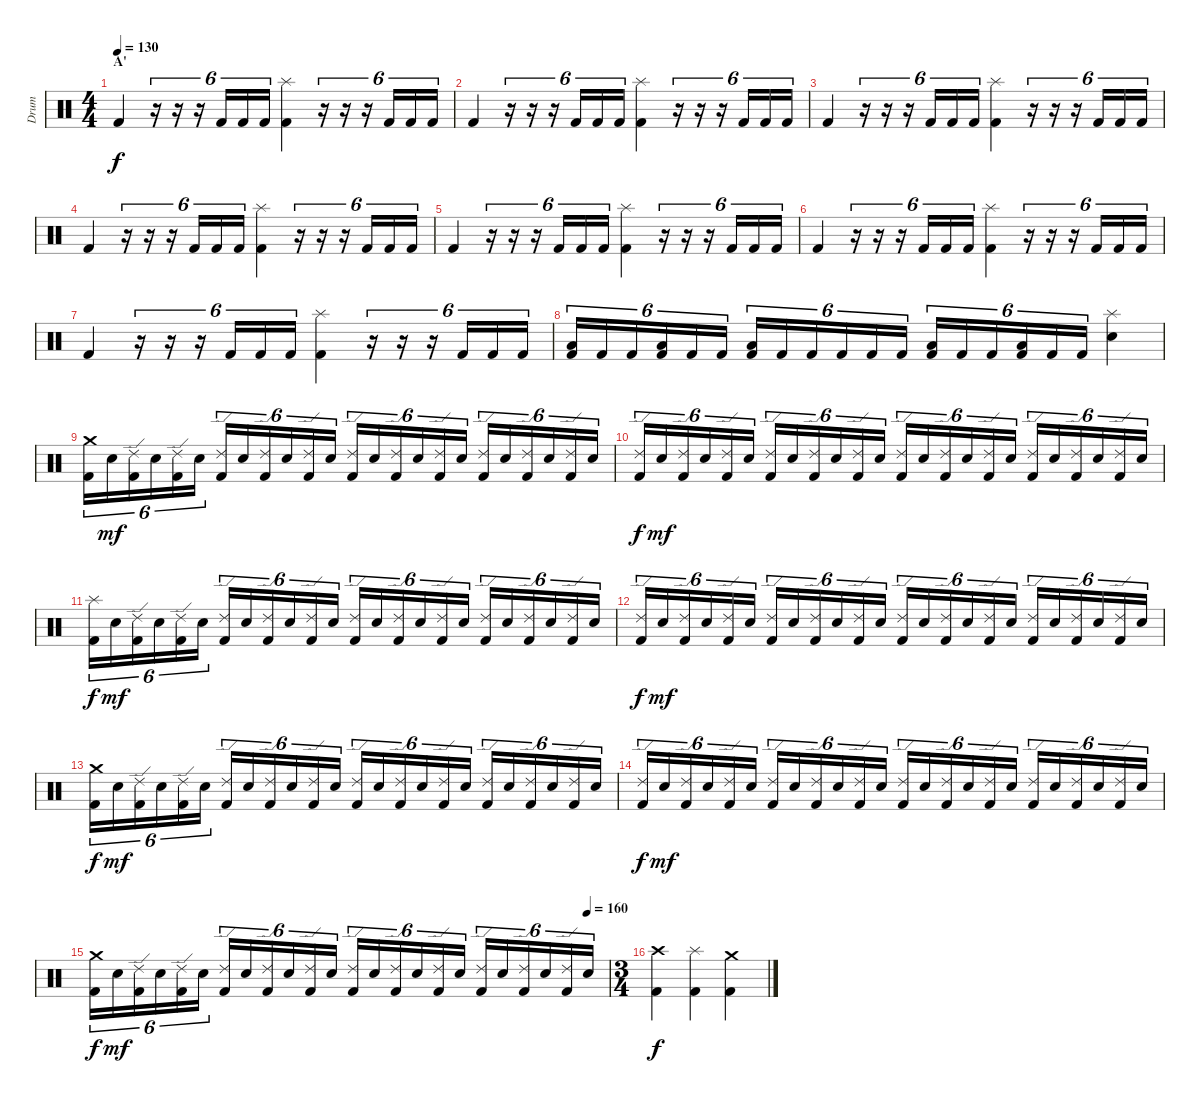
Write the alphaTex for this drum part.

\track ("Drum" "Drum") {instrument percussion}
\staff {score}
\articulation defaults
\ts (4 4)
\section ("" "A'")
\tempo 130
\clef neutral
\ks c "Kick (hit) 2".4{dy f}
r.16{tu (6 4)} r.16{tu (6 4)} r.16{tu (6 4)} "Kick (hit) 2".16{tu (6 4)} "Kick (hit) 2".16{tu (6 4)} "Kick (hit) 2".16{tu (6 4)} ("Splash (hit)" "Kick (hit) 2").4 r.16{tu (6 4)} r.16{tu (6 4)} r.16{tu (6 4)} "Kick (hit) 2".16{tu (6 4)} "Kick (hit) 2".16{tu (6 4)} "Kick (hit) 2".16{tu (6 4)} |
"Kick (hit) 2".4 r.16{tu (6 4)} r.16{tu (6 4)} r.16{tu (6 4)} "Kick (hit) 2".16{tu (6 4)} "Kick (hit) 2".16{tu (6 4)} "Kick (hit) 2".16{tu (6 4)} ("Splash (hit)" "Kick (hit) 2").4 r.16{tu (6 4)} r.16{tu (6 4)} r.16{tu (6 4)} "Kick (hit) 2".16{tu (6 4)} "Kick (hit) 2".16{tu (6 4)} "Kick (hit) 2".16{tu (6 4)} |
"Kick (hit) 2".4 r.16{tu (6 4)} r.16{tu (6 4)} r.16{tu (6 4)} "Kick (hit) 2".16{tu (6 4)} "Kick (hit) 2".16{tu (6 4)} "Kick (hit) 2".16{tu (6 4)} ("Splash (hit)" "Kick (hit) 2").4 r.16{tu (6 4)} r.16{tu (6 4)} r.16{tu (6 4)} "Kick (hit) 2".16{tu (6 4)} "Kick (hit) 2".16{tu (6 4)} "Kick (hit) 2".16{tu (6 4)} |
"Kick (hit) 2".4 r.16{tu (6 4)} r.16{tu (6 4)} r.16{tu (6 4)} "Kick (hit) 2".16{tu (6 4)} "Kick (hit) 2".16{tu (6 4)} "Kick (hit) 2".16{tu (6 4)} ("Splash (hit)" "Kick (hit) 2").4 r.16{tu (6 4)} r.16{tu (6 4)} r.16{tu (6 4)} "Kick (hit) 2".16{tu (6 4)} "Kick (hit) 2".16{tu (6 4)} "Kick (hit) 2".16{tu (6 4)} |
"Kick (hit) 2".4 r.16{tu (6 4)} r.16{tu (6 4)} r.16{tu (6 4)} "Kick (hit) 2".16{tu (6 4)} "Kick (hit) 2".16{tu (6 4)} "Kick (hit) 2".16{tu (6 4)} ("Splash (hit)" "Kick (hit) 2").4 r.16{tu (6 4)} r.16{tu (6 4)} r.16{tu (6 4)} "Kick (hit) 2".16{tu (6 4)} "Kick (hit) 2".16{tu (6 4)} "Kick (hit) 2".16{tu (6 4)} |
"Kick (hit) 2".4 r.16{tu (6 4)} r.16{tu (6 4)} r.16{tu (6 4)} "Kick (hit) 2".16{tu (6 4)} "Kick (hit) 2".16{tu (6 4)} "Kick (hit) 2".16{tu (6 4)} ("Splash (hit)" "Kick (hit) 2").4 r.16{tu (6 4)} r.16{tu (6 4)} r.16{tu (6 4)} "Kick (hit) 2".16{tu (6 4)} "Kick (hit) 2".16{tu (6 4)} "Kick (hit) 2".16{tu (6 4)} |
"Kick (hit) 2".4 r.16{tu (6 4)} r.16{tu (6 4)} r.16{tu (6 4)} "Kick (hit) 2".16{tu (6 4)} "Kick (hit) 2".16{tu (6 4)} "Kick (hit) 2".16{tu (6 4)} ("Splash (hit)" "Kick (hit) 2").4 r.16{tu (6 4)} r.16{tu (6 4)} r.16{tu (6 4)} "Kick (hit) 2".16{tu (6 4)} "Kick (hit) 2".16{tu (6 4)} "Kick (hit) 2".16{tu (6 4)} |
("Low Tom (hit)" "Kick (hit) 2").16{tu (6 4)} "Kick (hit) 2".16{tu (6 4)} "Kick (hit) 2".16{tu (6 4)} ("Low Tom (hit)" "Kick (hit) 2").16{tu (6 4)} "Kick (hit) 2".16{tu (6 4)} "Kick (hit) 2".16{tu (6 4)} ("Low Tom (hit)" "Kick (hit) 2").16{tu (6 4)} "Kick (hit) 2".16{tu (6 4)} "Kick (hit) 2".16{tu (6 4)} "Kick (hit) 2".16{tu (6 4)} "Kick (hit) 2".16{tu (6 4)} "Kick (hit) 2".16{tu (6 4)} ("Low Tom (hit)" "Kick (hit) 2").16{tu (6 4)} "Kick (hit) 2".16{tu (6 4)} "Kick (hit) 2".16{tu (6 4)} ("Low Tom (hit)" "Kick (hit) 2").16{tu (6 4)} "Kick (hit) 2".16{tu (6 4)} "Kick (hit) 2".16{tu (6 4)} ("Splash (hit)" "Electric Snare (hit)").4 |
("Crash medium (hit)" "Kick (hit) 2").16{tu (6 4)} "Electric Snare (hit)".16{tu (6 4) dy mf} ("Ride (edge) 2" "Kick (hit) 2").16{tu (6 4)} "Electric Snare (hit)".16{tu (6 4)} ("Ride (edge) 2" "Kick (hit) 2").16{tu (6 4)} "Electric Snare (hit)".16{tu (6 4)} ("Ride (edge) 2" "Kick (hit) 2").16{tu (6 4)} "Electric Snare (hit)".16{tu (6 4)} ("Ride (edge) 2" "Kick (hit) 2").16{tu (6 4)} "Electric Snare (hit)".16{tu (6 4)} ("Ride (edge) 2" "Kick (hit) 2").16{tu (6 4)} "Electric Snare (hit)".16{tu (6 4)} ("Ride (edge) 2" "Kick (hit) 2").16{tu (6 4)} "Electric Snare (hit)".16{tu (6 4)} ("Ride (edge) 2" "Kick (hit) 2").16{tu (6 4)} "Electric Snare (hit)".16{tu (6 4)} ("Ride (edge) 2" "Kick (hit) 2").16{tu (6 4)} "Electric Snare (hit)".16{tu (6 4)} ("Ride (edge) 2" "Kick (hit) 2").16{tu (6 4)} "Electric Snare (hit)".16{tu (6 4)} ("Ride (edge) 2" "Kick (hit) 2").16{tu (6 4)} "Electric Snare (hit)".16{tu (6 4)} ("Ride (edge) 2" "Kick (hit) 2").16{tu (6 4)} "Electric Snare (hit)".16{tu (6 4)} |
("Ride (edge) 2" "Kick (hit) 2").16{tu (6 4) dy f} "Electric Snare (hit)".16{tu (6 4) dy mf} ("Ride (edge) 2" "Kick (hit) 2").16{tu (6 4)} "Electric Snare (hit)".16{tu (6 4)} ("Ride (edge) 2" "Kick (hit) 2").16{tu (6 4)} "Electric Snare (hit)".16{tu (6 4)} ("Ride (edge) 2" "Kick (hit) 2").16{tu (6 4)} "Electric Snare (hit)".16{tu (6 4)} ("Ride (edge) 2" "Kick (hit) 2").16{tu (6 4)} "Electric Snare (hit)".16{tu (6 4)} ("Ride (edge) 2" "Kick (hit) 2").16{tu (6 4)} "Electric Snare (hit)".16{tu (6 4)} ("Ride (edge) 2" "Kick (hit) 2").16{tu (6 4)} "Electric Snare (hit)".16{tu (6 4)} ("Ride (edge) 2" "Kick (hit) 2").16{tu (6 4)} "Electric Snare (hit)".16{tu (6 4)} ("Ride (edge) 2" "Kick (hit) 2").16{tu (6 4)} "Electric Snare (hit)".16{tu (6 4)} ("Ride (edge) 2" "Kick (hit) 2").16{tu (6 4)} "Electric Snare (hit)".16{tu (6 4)} ("Ride (edge) 2" "Kick (hit) 2").16{tu (6 4)} "Electric Snare (hit)".16{tu (6 4)} ("Ride (edge) 2" "Kick (hit) 2").16{tu (6 4)} "Electric Snare (hit)".16{tu (6 4)} |
("Splash (hit)" "Kick (hit) 2").16{tu (6 4) dy f} "Electric Snare (hit)".16{tu (6 4) dy mf} ("Ride (edge) 2" "Kick (hit) 2").16{tu (6 4)} "Electric Snare (hit)".16{tu (6 4)} ("Ride (edge) 2" "Kick (hit) 2").16{tu (6 4)} "Electric Snare (hit)".16{tu (6 4)} ("Ride (edge) 2" "Kick (hit) 2").16{tu (6 4)} "Electric Snare (hit)".16{tu (6 4)} ("Ride (edge) 2" "Kick (hit) 2").16{tu (6 4)} "Electric Snare (hit)".16{tu (6 4)} ("Ride (edge) 2" "Kick (hit) 2").16{tu (6 4)} "Electric Snare (hit)".16{tu (6 4)} ("Ride (edge) 2" "Kick (hit) 2").16{tu (6 4)} "Electric Snare (hit)".16{tu (6 4)} ("Ride (edge) 2" "Kick (hit) 2").16{tu (6 4)} "Electric Snare (hit)".16{tu (6 4)} ("Ride (edge) 2" "Kick (hit) 2").16{tu (6 4)} "Electric Snare (hit)".16{tu (6 4)} ("Ride (edge) 2" "Kick (hit) 2").16{tu (6 4)} "Electric Snare (hit)".16{tu (6 4)} ("Ride (edge) 2" "Kick (hit) 2").16{tu (6 4)} "Electric Snare (hit)".16{tu (6 4)} ("Ride (edge) 2" "Kick (hit) 2").16{tu (6 4)} "Electric Snare (hit)".16{tu (6 4)} |
("Ride (edge) 2" "Kick (hit) 2").16{tu (6 4) dy f} "Electric Snare (hit)".16{tu (6 4) dy mf} ("Ride (edge) 2" "Kick (hit) 2").16{tu (6 4)} "Electric Snare (hit)".16{tu (6 4)} ("Ride (edge) 2" "Kick (hit) 2").16{tu (6 4)} "Electric Snare (hit)".16{tu (6 4)} ("Ride (edge) 2" "Kick (hit) 2").16{tu (6 4)} "Electric Snare (hit)".16{tu (6 4)} ("Ride (edge) 2" "Kick (hit) 2").16{tu (6 4)} "Electric Snare (hit)".16{tu (6 4)} ("Ride (edge) 2" "Kick (hit) 2").16{tu (6 4)} "Electric Snare (hit)".16{tu (6 4)} ("Ride (edge) 2" "Kick (hit) 2").16{tu (6 4)} "Electric Snare (hit)".16{tu (6 4)} ("Ride (edge) 2" "Kick (hit) 2").16{tu (6 4)} "Electric Snare (hit)".16{tu (6 4)} ("Ride (edge) 2" "Kick (hit) 2").16{tu (6 4)} "Electric Snare (hit)".16{tu (6 4)} ("Ride (edge) 2" "Kick (hit) 2").16{tu (6 4)} "Electric Snare (hit)".16{tu (6 4)} ("Ride (edge) 2" "Kick (hit) 2").16{tu (6 4)} "Electric Snare (hit)".16{tu (6 4)} ("Ride (edge) 2" "Kick (hit) 2").16{tu (6 4)} "Electric Snare (hit)".16{tu (6 4)} |
("Crash medium (hit)" "Kick (hit) 2").16{tu (6 4) dy f} "Electric Snare (hit)".16{tu (6 4) dy mf} ("Ride (edge) 2" "Kick (hit) 2").16{tu (6 4)} "Electric Snare (hit)".16{tu (6 4)} ("Ride (edge) 2" "Kick (hit) 2").16{tu (6 4)} "Electric Snare (hit)".16{tu (6 4)} ("Ride (edge) 2" "Kick (hit) 2").16{tu (6 4)} "Electric Snare (hit)".16{tu (6 4)} ("Ride (edge) 2" "Kick (hit) 2").16{tu (6 4)} "Electric Snare (hit)".16{tu (6 4)} ("Ride (edge) 2" "Kick (hit) 2").16{tu (6 4)} "Electric Snare (hit)".16{tu (6 4)} ("Ride (edge) 2" "Kick (hit) 2").16{tu (6 4)} "Electric Snare (hit)".16{tu (6 4)} ("Ride (edge) 2" "Kick (hit) 2").16{tu (6 4)} "Electric Snare (hit)".16{tu (6 4)} ("Ride (edge) 2" "Kick (hit) 2").16{tu (6 4)} "Electric Snare (hit)".16{tu (6 4)} ("Ride (edge) 2" "Kick (hit) 2").16{tu (6 4)} "Electric Snare (hit)".16{tu (6 4)} ("Ride (edge) 2" "Kick (hit) 2").16{tu (6 4)} "Electric Snare (hit)".16{tu (6 4)} ("Ride (edge) 2" "Kick (hit) 2").16{tu (6 4)} "Electric Snare (hit)".16{tu (6 4)} |
("Ride (edge) 2" "Kick (hit) 2").16{tu (6 4) dy f} "Electric Snare (hit)".16{tu (6 4) dy mf} ("Ride (edge) 2" "Kick (hit) 2").16{tu (6 4)} "Electric Snare (hit)".16{tu (6 4)} ("Ride (edge) 2" "Kick (hit) 2").16{tu (6 4)} "Electric Snare (hit)".16{tu (6 4)} ("Ride (edge) 2" "Kick (hit) 2").16{tu (6 4)} "Electric Snare (hit)".16{tu (6 4)} ("Ride (edge) 2" "Kick (hit) 2").16{tu (6 4)} "Electric Snare (hit)".16{tu (6 4)} ("Ride (edge) 2" "Kick (hit) 2").16{tu (6 4)} "Electric Snare (hit)".16{tu (6 4)} ("Ride (edge) 2" "Kick (hit) 2").16{tu (6 4)} "Electric Snare (hit)".16{tu (6 4)} ("Ride (edge) 2" "Kick (hit) 2").16{tu (6 4)} "Electric Snare (hit)".16{tu (6 4)} ("Ride (edge) 2" "Kick (hit) 2").16{tu (6 4)} "Electric Snare (hit)".16{tu (6 4)} ("Ride (edge) 2" "Kick (hit) 2").16{tu (6 4)} "Electric Snare (hit)".16{tu (6 4)} ("Ride (edge) 2" "Kick (hit) 2").16{tu (6 4)} "Electric Snare (hit)".16{tu (6 4)} ("Ride (edge) 2" "Kick (hit) 2").16{tu (6 4)} "Electric Snare (hit)".16{tu (6 4)} |
\tempo (160 0.9583333333333334)
("Crash medium (hit)" "Kick (hit) 2").16{tu (6 4) dy f} "Electric Snare (hit)".16{tu (6 4) dy mf} ("Ride (edge) 2" "Kick (hit) 2").16{tu (6 4)} "Electric Snare (hit)".16{tu (6 4)} ("Ride (edge) 2" "Kick (hit) 2").16{tu (6 4)} "Electric Snare (hit)".16{tu (6 4)} ("Ride (edge) 2" "Kick (hit) 2").16{tu (6 4)} "Electric Snare (hit)".16{tu (6 4)} ("Ride (edge) 2" "Kick (hit) 2").16{tu (6 4)} "Electric Snare (hit)".16{tu (6 4)} ("Ride (edge) 2" "Kick (hit) 2").16{tu (6 4)} "Electric Snare (hit)".16{tu (6 4)} ("Ride (edge) 2" "Kick (hit) 2").16{tu (6 4)} "Electric Snare (hit)".16{tu (6 4)} ("Ride (edge) 2" "Kick (hit) 2").16{tu (6 4)} "Electric Snare (hit)".16{tu (6 4)} ("Ride (edge) 2" "Kick (hit) 2").16{tu (6 4)} "Electric Snare (hit)".16{tu (6 4)} ("Ride (edge) 2" "Kick (hit) 2").16{tu (6 4)} "Electric Snare (hit)".16{tu (6 4)} ("Ride (edge) 2" "Kick (hit) 2").16{tu (6 4)} "Electric Snare (hit)".16{tu (6 4)} ("Ride (edge) 2" "Kick (hit) 2").16{tu (6 4)} "Electric Snare (hit)".16{tu (6 4)} |
\ts (3 4)
("Crash high (hit)" "Kick (hit) 2").4{dy f} ("Splash (hit)" "Kick (hit) 2").4 ("Crash medium (hit)" "Kick (hit) 2").4
